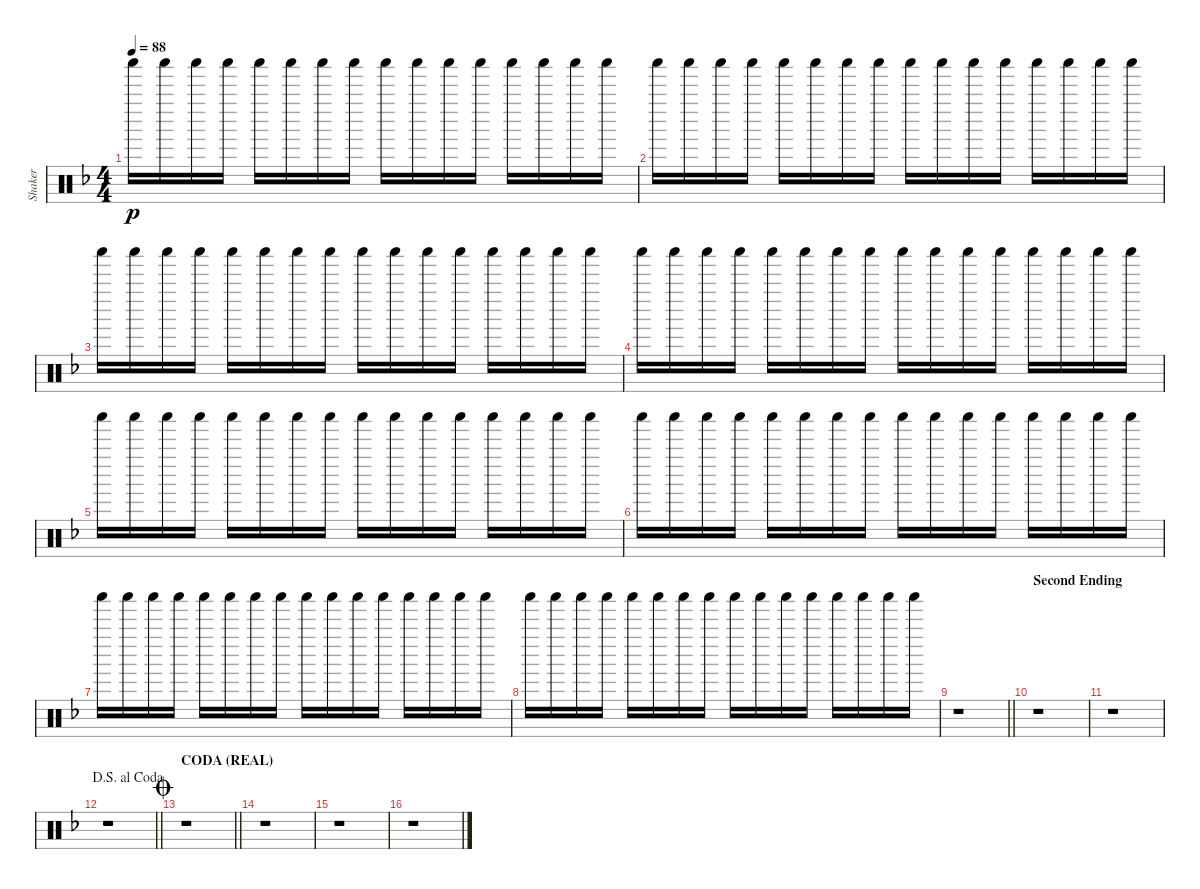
\track ("Shaker" "Shaker") {instrument percussion}
\staff {score}
\articulation defaults
\ts (4 4)
\tempo 88
\clef neutral
\ks dminor "Shaker (hit)".16{dy p} "Shaker (hit)".16 "Shaker (hit)".16 "Shaker (hit)".16 "Shaker (hit)".16 "Shaker (hit)".16 "Shaker (hit)".16 "Shaker (hit)".16 "Shaker (hit)".16 "Shaker (hit)".16 "Shaker (hit)".16 "Shaker (hit)".16 "Shaker (hit)".16 "Shaker (hit)".16 "Shaker (hit)".16 "Shaker (hit)".16
|
"Shaker (hit)".16 "Shaker (hit)".16 "Shaker (hit)".16 "Shaker (hit)".16 "Shaker (hit)".16 "Shaker (hit)".16 "Shaker (hit)".16 "Shaker (hit)".16 "Shaker (hit)".16 "Shaker (hit)".16 "Shaker (hit)".16 "Shaker (hit)".16 "Shaker (hit)".16 "Shaker (hit)".16 "Shaker (hit)".16 "Shaker (hit)".16 |
"Shaker (hit)".16 "Shaker (hit)".16 "Shaker (hit)".16 "Shaker (hit)".16 "Shaker (hit)".16 "Shaker (hit)".16 "Shaker (hit)".16 "Shaker (hit)".16 "Shaker (hit)".16 "Shaker (hit)".16 "Shaker (hit)".16 "Shaker (hit)".16 "Shaker (hit)".16 "Shaker (hit)".16 "Shaker (hit)".16 "Shaker (hit)".16 |
"Shaker (hit)".16 "Shaker (hit)".16 "Shaker (hit)".16 "Shaker (hit)".16 "Shaker (hit)".16 "Shaker (hit)".16 "Shaker (hit)".16 "Shaker (hit)".16 "Shaker (hit)".16 "Shaker (hit)".16 "Shaker (hit)".16 "Shaker (hit)".16 "Shaker (hit)".16 "Shaker (hit)".16 "Shaker (hit)".16 "Shaker (hit)".16 |
"Shaker (hit)".16 "Shaker (hit)".16 "Shaker (hit)".16 "Shaker (hit)".16 "Shaker (hit)".16 "Shaker (hit)".16 "Shaker (hit)".16 "Shaker (hit)".16 "Shaker (hit)".16 "Shaker (hit)".16 "Shaker (hit)".16 "Shaker (hit)".16 "Shaker (hit)".16 "Shaker (hit)".16 "Shaker (hit)".16 "Shaker (hit)".16 |
"Shaker (hit)".16 "Shaker (hit)".16 "Shaker (hit)".16 "Shaker (hit)".16 "Shaker (hit)".16 "Shaker (hit)".16 "Shaker (hit)".16 "Shaker (hit)".16 "Shaker (hit)".16 "Shaker (hit)".16 "Shaker (hit)".16 "Shaker (hit)".16 "Shaker (hit)".16 "Shaker (hit)".16 "Shaker (hit)".16 "Shaker (hit)".16 |
"Shaker (hit)".16 "Shaker (hit)".16 "Shaker (hit)".16 "Shaker (hit)".16 "Shaker (hit)".16 "Shaker (hit)".16 "Shaker (hit)".16 "Shaker (hit)".16 "Shaker (hit)".16 "Shaker (hit)".16 "Shaker (hit)".16 "Shaker (hit)".16 "Shaker (hit)".16 "Shaker (hit)".16 "Shaker (hit)".16 "Shaker (hit)".16 |
"Shaker (hit)".16 "Shaker (hit)".16 "Shaker (hit)".16 "Shaker (hit)".16 "Shaker (hit)".16 "Shaker (hit)".16 "Shaker (hit)".16 "Shaker (hit)".16 "Shaker (hit)".16 "Shaker (hit)".16 "Shaker (hit)".16 "Shaker (hit)".16 "Shaker (hit)".16 "Shaker (hit)".16 "Shaker (hit)".16 "Shaker (hit)".16 |
\barLineRight lightlight
r.1 |
\section ("" "Second Ending")
r.1 |
r.1 |
\jump dalsegnoalcoda
\barLineRight lightlight
r.1 |
\section ("" "CODA (REAL)")
\jump coda
\barLineRight lightlight
r.1 |
r.1 |
r.1 |
r.1
